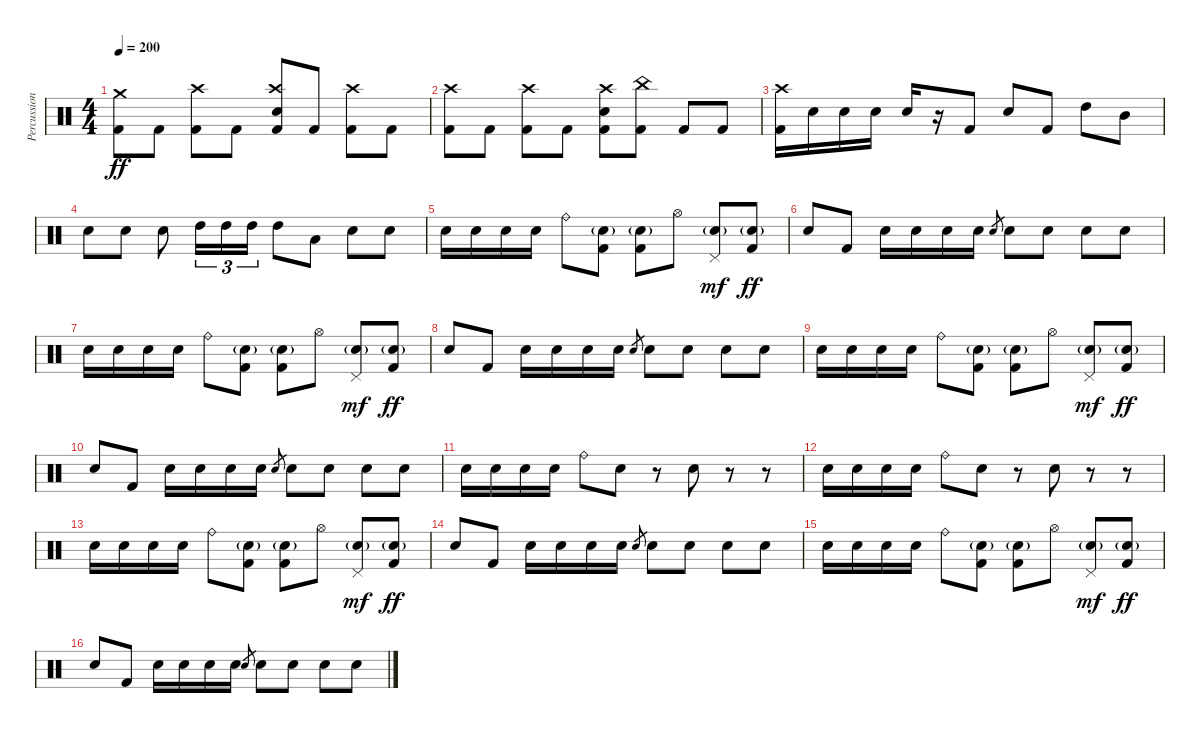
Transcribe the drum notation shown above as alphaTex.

\track ("Percussion" "Percussion") {instrument percussion}
\staff {score}
\articulation defaults
\ts (4 4)
\tempo 200
\clef neutral
\ks c
("Crash medium (hit)" "Kick (hit) 2").8{dy ff} "Kick (hit) 2".8 ("Crash high (hit)" "Kick (hit) 2").8 "Kick (hit) 2".8 ("Crash high (hit)" "Electric Snare (hit)" "Kick (hit) 2").8 "Kick (hit) 2".8 ("Crash high (hit)" "Kick (hit) 2").8 "Kick (hit) 2".8 |
("Crash high (hit)" "Kick (hit) 2").8 "Kick (hit) 2".8 ("Crash high (hit)" "Kick (hit) 2").8 "Kick (hit) 2".8 ("Crash high (hit)" "Electric Snare (hit)" "Kick (hit) 2").8 ("China (hit)" "Kick (hit) 2").8 "Kick (hit) 2".8 "Kick (hit) 2".8 |
("Crash high (hit)" "Kick (hit) 2").16 "Electric Snare (hit)".16 "Electric Snare (hit)".16 "Electric Snare (hit)".16 "Electric Snare (hit)".16 r.16 "Kick (hit) 2".8 "Electric Snare (hit)".8 "Kick (hit) 2".8 "High Tom (hit)".8 "Mid Tom (hit)".8 |
"Electric Snare (hit)".8 "Electric Snare (hit)".8 "Electric Snare (hit)".8 "High Tom (hit)".16{tu (3 2)} "High Tom (hit)".16{tu (3 2)} "High Tom (hit)".16{tu (3 2)} "High Tom (hit)".8 "Low Tom (hit)".8 "Electric Snare (hit)".8 "Electric Snare (hit)".8 |
"Electric Snare (hit)".16 "Electric Snare (hit)".16 "Electric Snare (hit)".16 "Electric Snare (hit)".16 "Ride (bell)".8 ("Electric Snare (hit)"{g} "Kick (hit) 2").8 ("Electric Snare (hit)"{g} "Kick (hit) 2").8 "Hi-Hat (open)".8 ("Pedal Hi-Hat (hit)" "Electric Snare (hit)"{g}).8{dy mf} ("Electric Snare (hit)"{g} "Kick (hit) 2").8{dy ff} |
"Electric Snare (hit)".8 "Kick (hit) 2".8 "Electric Snare (hit)".16 "Electric Snare (hit)".16 "Electric Snare (hit)".16 "Electric Snare (hit)".16 "Electric Snare (hit)".8{gr} "Electric Snare (hit)".8 "Electric Snare (hit)".8 "Electric Snare (hit)".8 "Electric Snare (hit)".8 |
"Electric Snare (hit)".16 "Electric Snare (hit)".16 "Electric Snare (hit)".16 "Electric Snare (hit)".16 "Ride (bell)".8 ("Electric Snare (hit)"{g} "Kick (hit) 2").8 ("Electric Snare (hit)"{g} "Kick (hit) 2").8 "Hi-Hat (open)".8 ("Pedal Hi-Hat (hit)" "Electric Snare (hit)"{g}).8{dy mf} ("Electric Snare (hit)"{g} "Kick (hit) 2").8{dy ff} |
"Electric Snare (hit)".8 "Kick (hit) 2".8 "Electric Snare (hit)".16 "Electric Snare (hit)".16 "Electric Snare (hit)".16 "Electric Snare (hit)".16 "Electric Snare (hit)".8{gr} "Electric Snare (hit)".8 "Electric Snare (hit)".8 "Electric Snare (hit)".8 "Electric Snare (hit)".8 |
"Electric Snare (hit)".16 "Electric Snare (hit)".16 "Electric Snare (hit)".16 "Electric Snare (hit)".16 "Ride (bell)".8 ("Electric Snare (hit)"{g} "Kick (hit) 2").8 ("Electric Snare (hit)"{g} "Kick (hit) 2").8 "Hi-Hat (open)".8 ("Pedal Hi-Hat (hit)" "Electric Snare (hit)"{g}).8{dy mf} ("Electric Snare (hit)"{g} "Kick (hit) 2").8{dy ff} |
"Electric Snare (hit)".8 "Kick (hit) 2".8 "Electric Snare (hit)".16 "Electric Snare (hit)".16 "Electric Snare (hit)".16 "Electric Snare (hit)".16 "Electric Snare (hit)".8{gr} "Electric Snare (hit)".8 "Electric Snare (hit)".8 "Electric Snare (hit)".8 "Electric Snare (hit)".8 |
"Electric Snare (hit)".16 "Electric Snare (hit)".16 "Electric Snare (hit)".16 "Electric Snare (hit)".16 "Ride (bell)".8 "Electric Snare (hit)".8 r.8 "Electric Snare (hit)".8 r.8 r.8 |
"Electric Snare (hit)".16 "Electric Snare (hit)".16 "Electric Snare (hit)".16 "Electric Snare (hit)".16 "Ride (bell)".8 "Electric Snare (hit)".8 r.8 "Electric Snare (hit)".8 r.8 r.8 |
"Electric Snare (hit)".16 "Electric Snare (hit)".16 "Electric Snare (hit)".16 "Electric Snare (hit)".16 "Ride (bell)".8 ("Electric Snare (hit)"{g} "Kick (hit) 2").8 ("Electric Snare (hit)"{g} "Kick (hit) 2").8 "Hi-Hat (open)".8 ("Pedal Hi-Hat (hit)" "Electric Snare (hit)"{g}).8{dy mf} ("Electric Snare (hit)"{g} "Kick (hit) 2").8{dy ff} |
"Electric Snare (hit)".8 "Kick (hit) 2".8 "Electric Snare (hit)".16 "Electric Snare (hit)".16 "Electric Snare (hit)".16 "Electric Snare (hit)".16 "Electric Snare (hit)".8{gr} "Electric Snare (hit)".8 "Electric Snare (hit)".8 "Electric Snare (hit)".8 "Electric Snare (hit)".8 |
"Electric Snare (hit)".16 "Electric Snare (hit)".16 "Electric Snare (hit)".16 "Electric Snare (hit)".16 "Ride (bell)".8 ("Electric Snare (hit)"{g} "Kick (hit) 2").8 ("Electric Snare (hit)"{g} "Kick (hit) 2").8 "Hi-Hat (open)".8 ("Pedal Hi-Hat (hit)" "Electric Snare (hit)"{g}).8{dy mf} ("Electric Snare (hit)"{g} "Kick (hit) 2").8{dy ff} |
"Electric Snare (hit)".8 "Kick (hit) 2".8 "Electric Snare (hit)".16 "Electric Snare (hit)".16 "Electric Snare (hit)".16 "Electric Snare (hit)".16 "Electric Snare (hit)".8{gr} "Electric Snare (hit)".8 "Electric Snare (hit)".8 "Electric Snare (hit)".8 "Electric Snare (hit)".8
